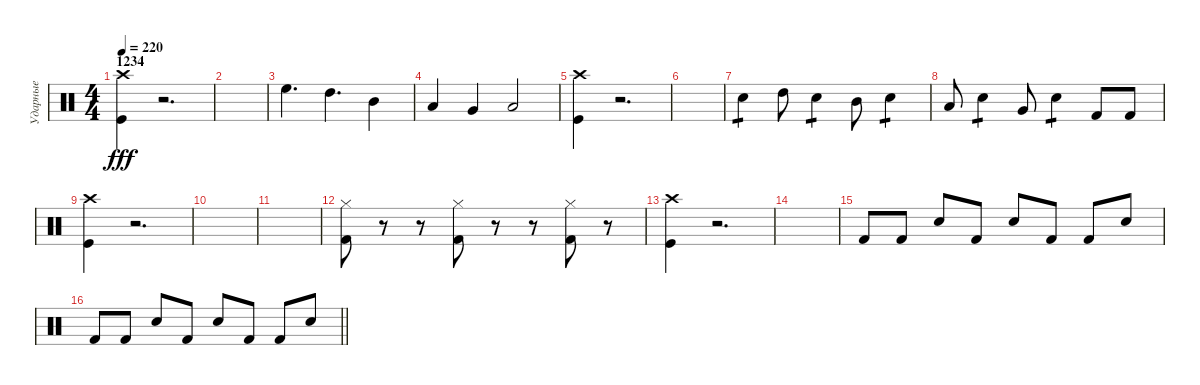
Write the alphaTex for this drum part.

\track ("Ударные" "Ударные") {instrument percussion}
\staff {score}
\articulation defaults
\ts (4 4)
\section ("" "1234")
\tempo 220
\clef neutral
\ks c
("Kick (hit)" "Crash high (hit)").4{dy fff} r.2{d} |
|
"High Floor Tom (hit)".4{d} "High Tom (hit)".4{d} "Mid Tom (hit)".4 |
"Low Tom (hit)".4 "Very Low Tom (hit)".4 "Low Floor Tom (hit)".2 |
("Kick (hit)" "Crash high (hit)").4 r.2{d} |
|
"Snare (hit) 2".4{tp 1} "High Tom (hit)".8 "Snare (hit) 2".4{tp 1} "Mid Tom (hit)".8 "Snare (hit) 2".4{tp 1} |
"Low Tom (hit)".8 "Snare (hit) 2".4{tp 1} "Very Low Tom (hit)".8 "Snare (hit) 2".4{tp 1} "Kick (hit) 2".8 "Kick (hit) 2".8 |
("Kick (hit)" "Crash high (hit)").4 r.2{d} |
|
|
("Hi-Hat (closed)" "Kick (hit) 2").8 r.8 r.8 ("Hi-Hat (closed)" "Kick (hit) 2").8 r.8 r.8 ("Hi-Hat (closed)" "Kick (hit) 2").8 r.8 |
("Kick (hit)" "Crash high (hit)").4 r.2{d} |
|
"Kick (hit) 2".8 "Kick (hit) 2".8 "Snare (hit) 2".8 "Kick (hit) 2".8 "Snare (hit) 2".8 "Kick (hit) 2".8 "Kick (hit) 2".8 "Snare (hit) 2".8 |
\barLineRight lightlight "Kick (hit) 2".8 "Kick (hit) 2".8 "Snare (hit) 2".8 "Kick (hit) 2".8 "Snare (hit) 2".8 "Kick (hit) 2".8 "Kick (hit) 2".8 "Snare (hit) 2".8
